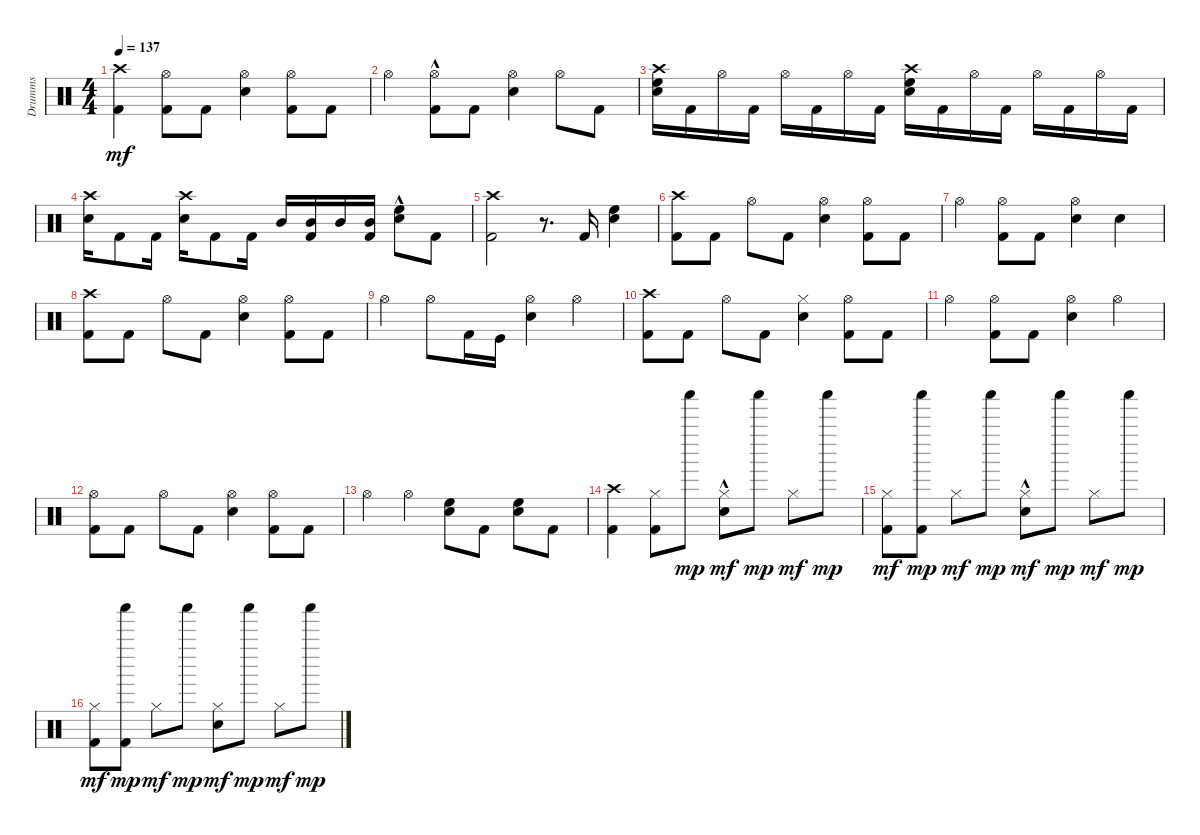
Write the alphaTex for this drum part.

\track ("Drumms" "Drumms") {instrument percussion}
\staff {score}
\articulation defaults
\ts (4 4)
\tempo 137
\clef neutral
\ks c
("Crash high (hit)" "Kick (hit) 2").4{dy mf} ("Hi-Hat (open)" "Kick (hit) 2").8 "Kick (hit) 2".8 ("Hi-Hat (open)" "Snare (hit) 2").4 ("Kick (hit) 2" "Hi-Hat (open)").8 "Kick (hit) 2".8 |
"Hi-Hat (open)".4 ("Hi-Hat (open)"{hac} "Kick (hit) 2").8 "Kick (hit) 2".8 ("Snare (hit) 2" "Hi-Hat (open)").4 "Hi-Hat (open)".8 "Kick (hit) 2".8 |
("Crash high (hit)" "Snare (hit) 2" "High Floor Tom (hit)").16 "Kick (hit) 2".16 "Hi-Hat (open)".16 "Kick (hit) 2".16 "Hi-Hat (open)".16 "Kick (hit) 2".16 "Hi-Hat (open)".16 "Kick (hit) 2".16 ("Crash high (hit)" "High Floor Tom (hit)" "Snare (hit) 2").16 "Kick (hit) 2".16 "Hi-Hat (open)".16 "Kick (hit) 2".16 "Hi-Hat (open)".16 "Kick (hit) 2".16 "Hi-Hat (open)".16 "Kick (hit) 2".16 |
("Crash high (hit)" "Snare (hit) 2").16 "Kick (hit) 2".8 "Kick (hit) 2".16 ("Crash high (hit)" "Snare (hit) 2").16 "Kick (hit) 2".8 "Kick (hit) 2".16 "Mid Tom (hit)".16 ("Mid Tom (hit)" "Kick (hit) 2").16 "Mid Tom (hit)".16 ("Mid Tom (hit)" "Kick (hit) 2").16 ("High Floor Tom (hit)"{hac} "Snare (hit) 2").8 "Kick (hit) 2".8 |
("Crash high (hit)" "Kick (hit) 2").2 r.8{d} "Kick (hit) 2".16 ("Snare (hit) 2" "High Floor Tom (hit)").4 |
\section ("" "")
("Crash high (hit)" "Kick (hit) 2").8 "Kick (hit) 2".8 "Hi-Hat (open)".8 "Kick (hit) 2".8 ("Snare (hit) 2" "Hi-Hat (open)").4 ("Hi-Hat (open)" "Kick (hit) 2").8 "Kick (hit) 2".8 |
"Hi-Hat (open)".4 ("Hi-Hat (open)" "Kick (hit) 2").8 "Kick (hit) 2".8 ("Hi-Hat (open)" "Snare (hit) 2").4 "Snare (hit)".4 |
("Crash high (hit)" "Kick (hit) 2").8 "Kick (hit) 2".8 "Hi-Hat (open)".8 "Kick (hit) 2".8 ("Hi-Hat (open)" "Snare (hit) 2").4 ("Hi-Hat (open)" "Kick (hit) 2").8 "Kick (hit) 2".8 |
"Hi-Hat (open)".4 "Hi-Hat (open)".8 "Kick (hit) 2".16 "Kick (hit)".16 ("Hi-Hat (open)" "Snare (hit) 2").4 "Hi-Hat (open)".4 |
("Crash high (hit)" "Kick (hit) 2").8 "Kick (hit) 2".8 "Hi-Hat (open)".8 "Kick (hit) 2".8 ("Snare (hit) 2" "Hi-Hat (closed)").4 ("Hi-Hat (open)" "Kick (hit) 2").8 "Kick (hit) 2".8 |
"Hi-Hat (open)".4 ("Hi-Hat (open)" "Kick (hit) 2").8 "Kick (hit) 2".8 ("Hi-Hat (open)" "Snare (hit) 2").4 "Hi-Hat (open)".4 |
("Hi-Hat (open)" "Kick (hit) 2").8 "Kick (hit) 2".8 "Hi-Hat (open)".8 "Kick (hit) 2".8 ("Hi-Hat (open)" "Snare (hit) 2").4 ("Hi-Hat (open)" "Kick (hit) 2").8 "Kick (hit) 2".8 |
"Hi-Hat (open)".4 "Hi-Hat (open)".4 ("High Floor Tom (hit)" "Snare (hit) 2").8 "Kick (hit) 2".8 ("Snare (hit) 2" "High Floor Tom (hit)").8 "Kick (hit) 2".8 |
\section ("" "")
("Crash high (hit)" "Kick (hit) 2").4 ("Hi-Hat (closed)" "Kick (hit) 2").8 "Shaker (hit)".8{dy mp} ("Hi-Hat (closed)"{hac} "Snare (hit) 2").8{dy mf} "Shaker (hit)".8{dy mp} "Hi-Hat (closed)".8{dy mf} "Shaker (hit)".8{dy mp} |
("Hi-Hat (closed)" "Kick (hit) 2").8{dy mf} ("Kick (hit) 2" "Shaker (hit)").8{dy mp} "Hi-Hat (closed)".8{dy mf} "Shaker (hit)".8{dy mp} ("Hi-Hat (closed)"{hac} "Snare (hit) 2").8{dy mf} "Shaker (hit)".8{dy mp} "Hi-Hat (closed)".8{dy mf} "Shaker (hit)".8{dy mp} |
("Hi-Hat (closed)" "Kick (hit) 2").8{dy mf} ("Shaker (hit)" "Kick (hit) 2").8{dy mp} "Hi-Hat (closed)".8{dy mf} "Shaker (hit)".8{dy mp} ("Hi-Hat (closed)" "Snare (hit) 2").8{dy mf} "Shaker (hit)".8{dy mp} "Hi-Hat (closed)".8{dy mf} "Shaker (hit)".8{dy mp}
